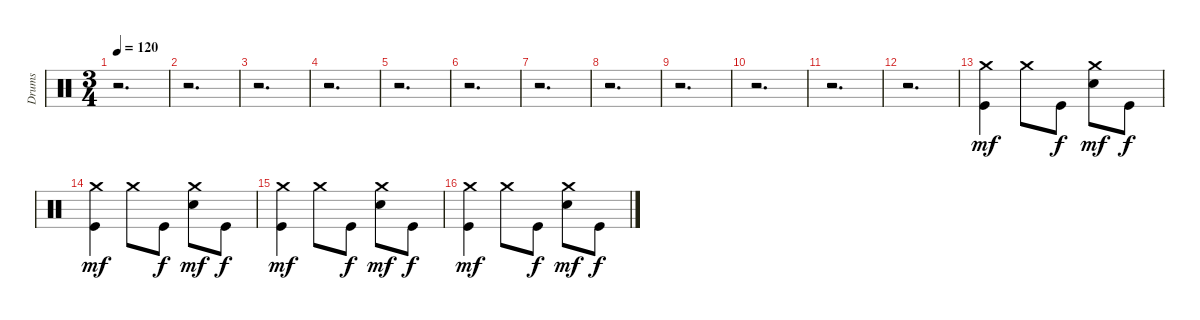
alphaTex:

\track ("Drums" "Drums") {instrument percussion}
\staff {score}
\articulation defaults
\ts (3 4)
\tempo 120
\clef neutral
\ks c
r.2{d dy mf} |
r.2{d} |
r.2{d} |
r.2{d} |
r.2{d} |
r.2{d} |
r.2{d} |
r.2{d} |
r.2{d} |
r.2{d} |
r.2{d} |
r.2{d} |
("Crash medium (hit)" "Kick (hit)").4{balance 0} "Crash medium (hit)".8{balance 1} "Kick (hit)".8{dy f} ("Crash medium (hit)" "Snare (hit) 2").8{dy mf balance 2} "Kick (hit)".8{dy f} |
("Crash medium (hit)" "Kick (hit)").4{dy mf balance 3} "Crash medium (hit)".8{balance 4} "Kick (hit)".8{dy f} ("Crash medium (hit)" "Snare (hit) 2").8{dy mf balance 5} "Kick (hit)".8{dy f} |
("Crash medium (hit)" "Kick (hit)").4{dy mf balance 6} "Crash medium (hit)".8{balance 7} "Kick (hit)".8{dy f} ("Crash medium (hit)" "Snare (hit) 2").8{dy mf balance 8} "Kick (hit)".8{dy f} |
("Crash medium (hit)" "Kick (hit)").4{dy mf balance 8} "Crash medium (hit)".8{balance 9} "Kick (hit)".8{dy f} ("Crash medium (hit)" "Snare (hit) 2").8{dy mf balance 10} "Kick (hit)".8{dy f}
